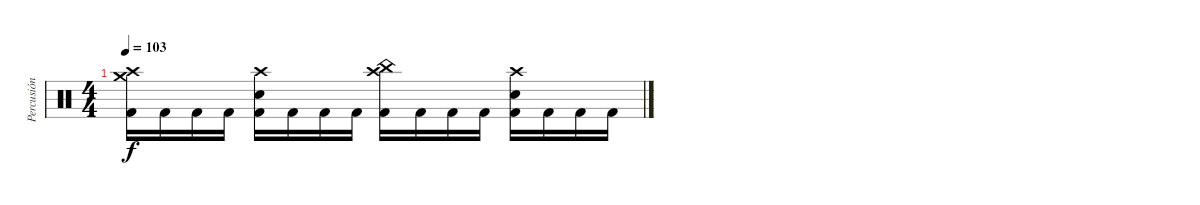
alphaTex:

\track ("Percusión" "Percusión") {instrument percussion}
\staff {score}
\articulation defaults
\ts (4 4)
\tempo 103
\clef neutral
\ks c
("Crash high (hit)" "Crash medium (hit)" "Kick (hit) 2").16{dy f} "Kick (hit) 2".16 "Kick (hit) 2".16 "Kick (hit) 2".16 ("Snare (hit) 2" "Crash high (hit)" "Kick (hit) 2").16 "Kick (hit) 2".16 "Kick (hit) 2".16 "Kick (hit) 2".16 ("Crash high (hit)" "China (hit)" "Kick (hit) 2").16 "Kick (hit) 2".16 "Kick (hit) 2".16 "Kick (hit) 2".16 ("Snare (hit) 2" "Crash high (hit)" "Kick (hit) 2").16 "Kick (hit) 2".16 "Kick (hit) 2".16 "Kick (hit) 2".16
